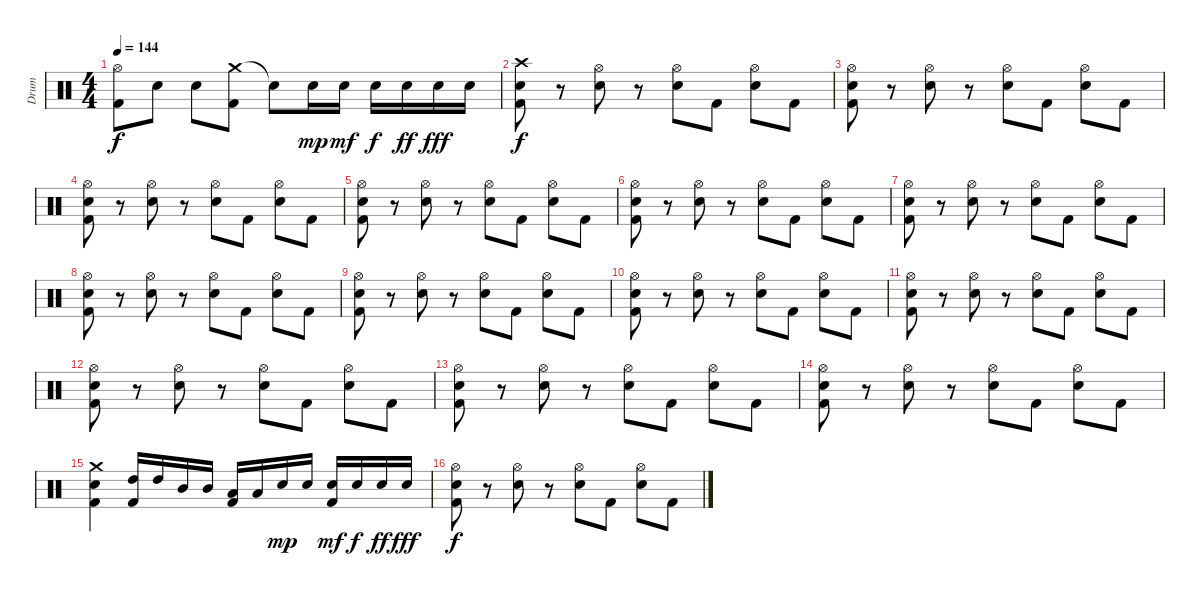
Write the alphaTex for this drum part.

\track ("Drum" "Drum") {instrument percussion}
\staff {score}
\articulation defaults
\ts (4 4)
\tempo 144
\clef neutral
\ks c
("Hi-Hat (open)" "Kick (hit) 2").8{dy f} "Electric Snare (hit)".8 "Electric Snare (hit)".8 ("Crash medium (hit)" "Kick (hit) 2").8 "Snare (hit)"{t}.8 "Electric Snare (hit)".16{dy mp} "Electric Snare (hit)".16{dy mf} "Electric Snare (hit)".16{dy f} "Electric Snare (hit)".16{dy ff} "Electric Snare (hit)".16{dy fff} "Electric Snare (hit)".16 |
("Crash high (hit)" "Electric Snare (hit)" "Kick (hit) 2").8{dy f} r.8 ("Hi-Hat (open)" "Electric Snare (hit)").8 r.8 ("Hi-Hat (open)" "Electric Snare (hit)").8 "Kick (hit) 2".8 ("Hi-Hat (open)" "Electric Snare (hit)").8 "Kick (hit) 2".8 |
("Hi-Hat (open)" "Electric Snare (hit)" "Kick (hit) 2").8 r.8 ("Hi-Hat (open)" "Electric Snare (hit)").8 r.8 ("Hi-Hat (open)" "Electric Snare (hit)").8 "Kick (hit) 2".8 ("Hi-Hat (open)" "Electric Snare (hit)").8 "Kick (hit) 2".8 |
("Hi-Hat (open)" "Electric Snare (hit)" "Kick (hit) 2").8 r.8 ("Hi-Hat (open)" "Electric Snare (hit)").8 r.8 ("Hi-Hat (open)" "Electric Snare (hit)").8 "Kick (hit) 2".8 ("Hi-Hat (open)" "Electric Snare (hit)").8 "Kick (hit) 2".8 |
("Hi-Hat (open)" "Electric Snare (hit)" "Kick (hit) 2").8 r.8 ("Hi-Hat (open)" "Electric Snare (hit)").8 r.8 ("Hi-Hat (open)" "Electric Snare (hit)").8 "Kick (hit) 2".8 ("Hi-Hat (open)" "Electric Snare (hit)").8 "Kick (hit) 2".8 |
("Hi-Hat (open)" "Electric Snare (hit)" "Kick (hit) 2").8 r.8 ("Hi-Hat (open)" "Electric Snare (hit)").8 r.8 ("Hi-Hat (open)" "Electric Snare (hit)").8 "Kick (hit) 2".8 ("Hi-Hat (open)" "Electric Snare (hit)").8 "Kick (hit) 2".8 |
("Hi-Hat (open)" "Electric Snare (hit)" "Kick (hit) 2").8 r.8 ("Hi-Hat (open)" "Electric Snare (hit)").8 r.8 ("Hi-Hat (open)" "Electric Snare (hit)").8 "Kick (hit) 2".8 ("Hi-Hat (open)" "Electric Snare (hit)").8 "Kick (hit) 2".8 |
("Hi-Hat (open)" "Electric Snare (hit)" "Kick (hit) 2").8 r.8 ("Hi-Hat (open)" "Electric Snare (hit)").8 r.8 ("Hi-Hat (open)" "Electric Snare (hit)").8 "Kick (hit) 2".8 ("Hi-Hat (open)" "Electric Snare (hit)").8 "Kick (hit) 2".8 |
("Hi-Hat (open)" "Electric Snare (hit)" "Kick (hit) 2").8 r.8 ("Hi-Hat (open)" "Electric Snare (hit)").8 r.8 ("Hi-Hat (open)" "Electric Snare (hit)").8 "Kick (hit) 2".8 ("Hi-Hat (open)" "Electric Snare (hit)").8 "Kick (hit) 2".8 |
("Hi-Hat (open)" "Electric Snare (hit)" "Kick (hit) 2").8 r.8 ("Hi-Hat (open)" "Electric Snare (hit)").8 r.8 ("Hi-Hat (open)" "Electric Snare (hit)").8 "Kick (hit) 2".8 ("Hi-Hat (open)" "Electric Snare (hit)").8 "Kick (hit) 2".8 |
("Hi-Hat (open)" "Electric Snare (hit)" "Kick (hit) 2").8 r.8 ("Hi-Hat (open)" "Electric Snare (hit)").8 r.8 ("Hi-Hat (open)" "Electric Snare (hit)").8 "Kick (hit) 2".8 ("Hi-Hat (open)" "Electric Snare (hit)").8 "Kick (hit) 2".8 |
("Hi-Hat (open)" "Electric Snare (hit)" "Kick (hit) 2").8 r.8 ("Hi-Hat (open)" "Electric Snare (hit)").8 r.8 ("Hi-Hat (open)" "Electric Snare (hit)").8 "Kick (hit) 2".8 ("Hi-Hat (open)" "Electric Snare (hit)").8 "Kick (hit) 2".8 |
("Hi-Hat (open)" "Electric Snare (hit)" "Kick (hit) 2").8 r.8 ("Hi-Hat (open)" "Electric Snare (hit)").8 r.8 ("Hi-Hat (open)" "Electric Snare (hit)").8 "Kick (hit) 2".8 ("Hi-Hat (open)" "Electric Snare (hit)").8 "Kick (hit) 2".8 |
("Hi-Hat (open)" "Electric Snare (hit)" "Kick (hit) 2").8 r.8 ("Hi-Hat (open)" "Electric Snare (hit)").8 r.8 ("Hi-Hat (open)" "Electric Snare (hit)").8 "Kick (hit) 2".8 ("Hi-Hat (open)" "Electric Snare (hit)").8 "Kick (hit) 2".8 |
("Crash medium (hit)" "Electric Snare (hit)" "Kick (hit) 2").4 ("High Tom (hit)" "Kick (hit) 2").16 "High Tom (hit)".16 "Mid Tom (hit)".16 "Mid Tom (hit)".16 ("Low Tom (hit)" "Kick (hit) 2").16 "Low Tom (hit)".16 "Electric Snare (hit)".16{dy mp} "Electric Snare (hit)".16 ("Electric Snare (hit)" "Kick (hit) 2").16{dy mf} "Electric Snare (hit)".16{dy f} "Electric Snare (hit)".16{dy ff} "Electric Snare (hit)".16{dy fff} |
("Hi-Hat (open)" "Electric Snare (hit)" "Kick (hit) 2").8{dy f} r.8 ("Hi-Hat (open)" "Electric Snare (hit)").8 r.8 ("Hi-Hat (open)" "Electric Snare (hit)").8 "Kick (hit) 2".8 ("Hi-Hat (open)" "Electric Snare (hit)").8 "Kick (hit) 2".8
